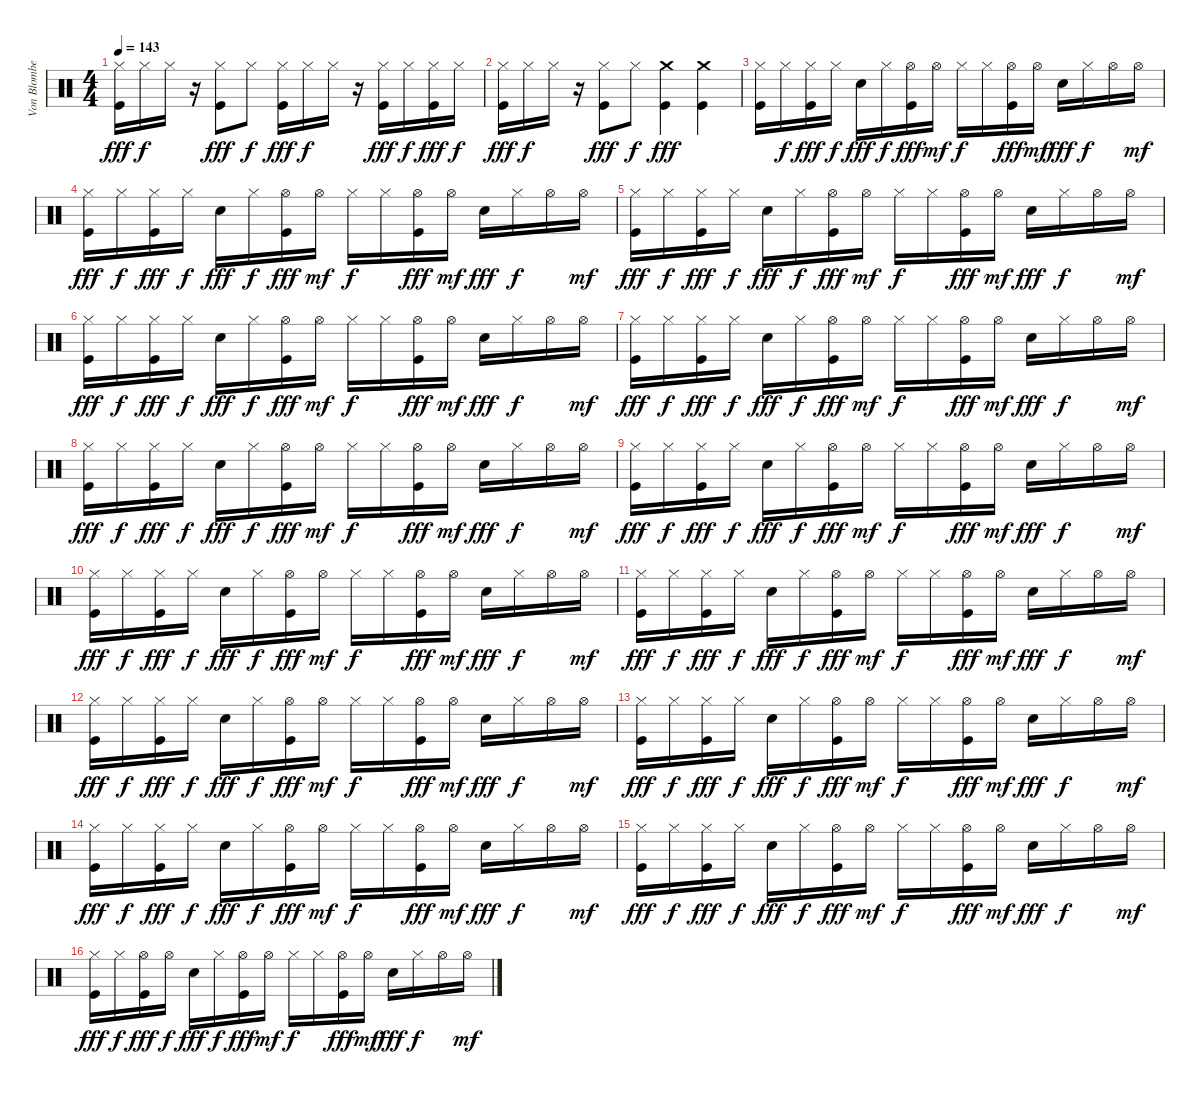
\track ("Von Blomberg" "Von Blombe") {instrument percussion}
\staff {score}
\articulation defaults
\ts (4 4)
\tempo 143
\clef neutral
\ks c
("Hi-Hat (closed)" "Kick (hit)").16{dy fff} "Hi-Hat (closed)".16{dy f} "Hi-Hat (closed)".16 r.16 ("Hi-Hat (closed)" "Kick (hit)").8{dy fff} "Hi-Hat (closed)".8{dy f} ("Hi-Hat (closed)" "Kick (hit)").16{dy fff} "Hi-Hat (closed)".16{dy f} "Hi-Hat (closed)".16 r.16 ("Hi-Hat (closed)" "Kick (hit)").16{dy fff} "Hi-Hat (closed)".16{dy f} ("Hi-Hat (closed)" "Kick (hit)").16{dy fff} "Hi-Hat (closed)".16{dy f} |
("Hi-Hat (closed)" "Kick (hit)").16{dy fff} "Hi-Hat (closed)".16{dy f} "Hi-Hat (closed)".16 r.16 ("Hi-Hat (closed)" "Kick (hit)").8{dy fff} "Hi-Hat (closed)".8{dy f} ("Crash medium (hit)" "Kick (hit)").4{dy fff} ("Crash medium (hit)" "Kick (hit)").4 |
("Hi-Hat (closed)" "Kick (hit)").16 "Hi-Hat (closed)".16{dy f} ("Hi-Hat (closed)" "Kick (hit)").16{dy fff} "Hi-Hat (closed)".16{dy f} "Electric Snare (hit)".16{dy fff} "Hi-Hat (closed)".16{dy f} ("Hi-Hat (open)" "Kick (hit)").16{dy fff} "Hi-Hat (open)".16{dy mf} "Hi-Hat (closed)".16{dy f} "Hi-Hat (closed)".16 ("Hi-Hat (open)" "Kick (hit)").16{dy fff} "Hi-Hat (open)".16{dy mf} "Electric Snare (hit)".16{dy fff} "Hi-Hat (closed)".16{dy f} "Hi-Hat (open)".16 "Hi-Hat (open)".16{dy mf} |
("Hi-Hat (closed)" "Kick (hit)").16{dy fff} "Hi-Hat (closed)".16{dy f} ("Hi-Hat (closed)" "Kick (hit)").16{dy fff} "Hi-Hat (closed)".16{dy f} "Electric Snare (hit)".16{dy fff} "Hi-Hat (closed)".16{dy f} ("Hi-Hat (open)" "Kick (hit)").16{dy fff} "Hi-Hat (open)".16{dy mf} "Hi-Hat (closed)".16{dy f} "Hi-Hat (closed)".16 ("Hi-Hat (open)" "Kick (hit)").16{dy fff} "Hi-Hat (open)".16{dy mf} "Electric Snare (hit)".16{dy fff} "Hi-Hat (closed)".16{dy f} "Hi-Hat (open)".16 "Hi-Hat (open)".16{dy mf} |
("Hi-Hat (closed)" "Kick (hit)").16{dy fff} "Hi-Hat (closed)".16{dy f} ("Hi-Hat (closed)" "Kick (hit)").16{dy fff} "Hi-Hat (closed)".16{dy f} "Electric Snare (hit)".16{dy fff} "Hi-Hat (closed)".16{dy f} ("Hi-Hat (open)" "Kick (hit)").16{dy fff} "Hi-Hat (open)".16{dy mf} "Hi-Hat (closed)".16{dy f} "Hi-Hat (closed)".16 ("Hi-Hat (open)" "Kick (hit)").16{dy fff} "Hi-Hat (open)".16{dy mf} "Electric Snare (hit)".16{dy fff} "Hi-Hat (closed)".16{dy f} "Hi-Hat (open)".16 "Hi-Hat (open)".16{dy mf} |
("Hi-Hat (closed)" "Kick (hit)").16{dy fff} "Hi-Hat (closed)".16{dy f} ("Hi-Hat (closed)" "Kick (hit)").16{dy fff} "Hi-Hat (closed)".16{dy f} "Electric Snare (hit)".16{dy fff} "Hi-Hat (closed)".16{dy f} ("Hi-Hat (open)" "Kick (hit)").16{dy fff} "Hi-Hat (open)".16{dy mf} "Hi-Hat (closed)".16{dy f} "Hi-Hat (closed)".16 ("Hi-Hat (open)" "Kick (hit)").16{dy fff} "Hi-Hat (open)".16{dy mf} "Electric Snare (hit)".16{dy fff} "Hi-Hat (closed)".16{dy f} "Hi-Hat (open)".16 "Hi-Hat (open)".16{dy mf} |
("Hi-Hat (closed)" "Kick (hit)").16{dy fff} "Hi-Hat (closed)".16{dy f} ("Hi-Hat (closed)" "Kick (hit)").16{dy fff} "Hi-Hat (closed)".16{dy f} "Electric Snare (hit)".16{dy fff} "Hi-Hat (closed)".16{dy f} ("Hi-Hat (open)" "Kick (hit)").16{dy fff} "Hi-Hat (open)".16{dy mf} "Hi-Hat (closed)".16{dy f} "Hi-Hat (closed)".16 ("Hi-Hat (open)" "Kick (hit)").16{dy fff} "Hi-Hat (open)".16{dy mf} "Electric Snare (hit)".16{dy fff} "Hi-Hat (closed)".16{dy f} "Hi-Hat (open)".16 "Hi-Hat (open)".16{dy mf} |
("Hi-Hat (closed)" "Kick (hit)").16{dy fff} "Hi-Hat (closed)".16{dy f} ("Hi-Hat (closed)" "Kick (hit)").16{dy fff} "Hi-Hat (closed)".16{dy f} "Electric Snare (hit)".16{dy fff} "Hi-Hat (closed)".16{dy f} ("Hi-Hat (open)" "Kick (hit)").16{dy fff} "Hi-Hat (open)".16{dy mf} "Hi-Hat (closed)".16{dy f} "Hi-Hat (closed)".16 ("Hi-Hat (open)" "Kick (hit)").16{dy fff} "Hi-Hat (open)".16{dy mf} "Electric Snare (hit)".16{dy fff} "Hi-Hat (closed)".16{dy f} "Hi-Hat (open)".16 "Hi-Hat (open)".16{dy mf} |
("Hi-Hat (closed)" "Kick (hit)").16{dy fff} "Hi-Hat (closed)".16{dy f} ("Hi-Hat (closed)" "Kick (hit)").16{dy fff} "Hi-Hat (closed)".16{dy f} "Electric Snare (hit)".16{dy fff} "Hi-Hat (closed)".16{dy f} ("Hi-Hat (open)" "Kick (hit)").16{dy fff} "Hi-Hat (open)".16{dy mf} "Hi-Hat (closed)".16{dy f} "Hi-Hat (closed)".16 ("Hi-Hat (open)" "Kick (hit)").16{dy fff} "Hi-Hat (open)".16{dy mf} "Electric Snare (hit)".16{dy fff} "Hi-Hat (closed)".16{dy f} "Hi-Hat (open)".16 "Hi-Hat (open)".16{dy mf} |
("Hi-Hat (closed)" "Kick (hit)").16{dy fff} "Hi-Hat (closed)".16{dy f} ("Hi-Hat (closed)" "Kick (hit)").16{dy fff} "Hi-Hat (closed)".16{dy f} "Electric Snare (hit)".16{dy fff} "Hi-Hat (closed)".16{dy f} ("Hi-Hat (open)" "Kick (hit)").16{dy fff} "Hi-Hat (open)".16{dy mf} "Hi-Hat (closed)".16{dy f} "Hi-Hat (closed)".16 ("Hi-Hat (open)" "Kick (hit)").16{dy fff} "Hi-Hat (open)".16{dy mf} "Electric Snare (hit)".16{dy fff} "Hi-Hat (closed)".16{dy f} "Hi-Hat (open)".16 "Hi-Hat (open)".16{dy mf} |
("Hi-Hat (closed)" "Kick (hit)").16{dy fff} "Hi-Hat (closed)".16{dy f} ("Hi-Hat (closed)" "Kick (hit)").16{dy fff} "Hi-Hat (closed)".16{dy f} "Electric Snare (hit)".16{dy fff} "Hi-Hat (closed)".16{dy f} ("Hi-Hat (open)" "Kick (hit)").16{dy fff} "Hi-Hat (open)".16{dy mf} "Hi-Hat (closed)".16{dy f} "Hi-Hat (closed)".16 ("Hi-Hat (open)" "Kick (hit)").16{dy fff} "Hi-Hat (open)".16{dy mf} "Electric Snare (hit)".16{dy fff} "Hi-Hat (closed)".16{dy f} "Hi-Hat (open)".16 "Hi-Hat (open)".16{dy mf} |
("Hi-Hat (closed)" "Kick (hit)").16{dy fff} "Hi-Hat (closed)".16{dy f} ("Hi-Hat (closed)" "Kick (hit)").16{dy fff} "Hi-Hat (closed)".16{dy f} "Electric Snare (hit)".16{dy fff} "Hi-Hat (closed)".16{dy f} ("Hi-Hat (open)" "Kick (hit)").16{dy fff} "Hi-Hat (open)".16{dy mf} "Hi-Hat (closed)".16{dy f} "Hi-Hat (closed)".16 ("Hi-Hat (open)" "Kick (hit)").16{dy fff} "Hi-Hat (open)".16{dy mf} "Electric Snare (hit)".16{dy fff} "Hi-Hat (closed)".16{dy f} "Hi-Hat (open)".16 "Hi-Hat (open)".16{dy mf} |
("Hi-Hat (closed)" "Kick (hit)").16{dy fff} "Hi-Hat (closed)".16{dy f} ("Hi-Hat (closed)" "Kick (hit)").16{dy fff} "Hi-Hat (closed)".16{dy f} "Electric Snare (hit)".16{dy fff} "Hi-Hat (closed)".16{dy f} ("Hi-Hat (open)" "Kick (hit)").16{dy fff} "Hi-Hat (open)".16{dy mf} "Hi-Hat (closed)".16{dy f} "Hi-Hat (closed)".16 ("Hi-Hat (open)" "Kick (hit)").16{dy fff} "Hi-Hat (open)".16{dy mf} "Electric Snare (hit)".16{dy fff} "Hi-Hat (closed)".16{dy f} "Hi-Hat (open)".16 "Hi-Hat (open)".16{dy mf} |
("Hi-Hat (closed)" "Kick (hit)").16{dy fff} "Hi-Hat (closed)".16{dy f} ("Hi-Hat (closed)" "Kick (hit)").16{dy fff} "Hi-Hat (closed)".16{dy f} "Electric Snare (hit)".16{dy fff} "Hi-Hat (closed)".16{dy f} ("Hi-Hat (open)" "Kick (hit)").16{dy fff} "Hi-Hat (open)".16{dy mf} "Hi-Hat (closed)".16{dy f} "Hi-Hat (closed)".16 ("Hi-Hat (open)" "Kick (hit)").16{dy fff} "Hi-Hat (open)".16{dy mf} "Electric Snare (hit)".16{dy fff} "Hi-Hat (closed)".16{dy f} "Hi-Hat (open)".16 "Hi-Hat (open)".16{dy mf} |
("Hi-Hat (closed)" "Kick (hit)").16{dy fff} "Hi-Hat (closed)".16{dy f} ("Hi-Hat (closed)" "Kick (hit)").16{dy fff} "Hi-Hat (closed)".16{dy f} "Electric Snare (hit)".16{dy fff} "Hi-Hat (closed)".16{dy f} ("Hi-Hat (open)" "Kick (hit)").16{dy fff} "Hi-Hat (open)".16{dy mf} "Hi-Hat (closed)".16{dy f} "Hi-Hat (closed)".16 ("Hi-Hat (open)" "Kick (hit)").16{dy fff} "Hi-Hat (open)".16{dy mf} "Electric Snare (hit)".16{dy fff} "Hi-Hat (closed)".16{dy f} "Hi-Hat (open)".16 "Hi-Hat (open)".16{dy mf} |
("Hi-Hat (closed)" "Kick (hit)").16{dy fff} "Hi-Hat (closed)".16{dy f} ("Hi-Hat (open)" "Kick (hit)").16{dy fff} "Hi-Hat (open)".16{dy f} "Electric Snare (hit)".16{dy fff} "Hi-Hat (closed)".16{dy f} ("Hi-Hat (open)" "Kick (hit)").16{dy fff} "Hi-Hat (open)".16{dy mf} "Hi-Hat (closed)".16{dy f} "Hi-Hat (closed)".16 ("Hi-Hat (open)" "Kick (hit)").16{dy fff} "Hi-Hat (open)".16{dy mf} "Electric Snare (hit)".16{dy fff} "Hi-Hat (closed)".16{dy f} "Hi-Hat (open)".16 "Hi-Hat (open)".16{dy mf}
